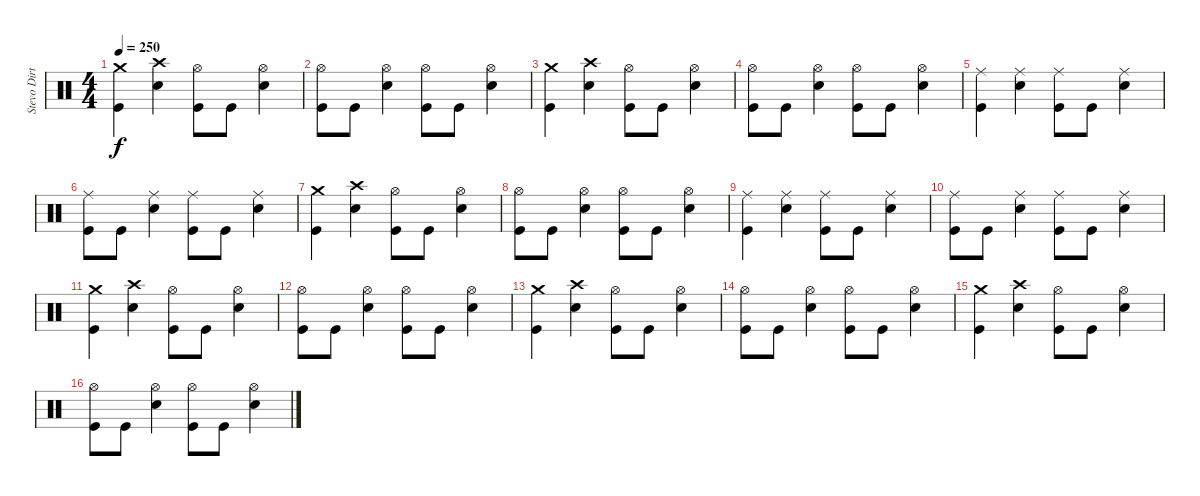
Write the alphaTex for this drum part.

\track ("Stevo Dirty Poo" "Stevo Dirt") {instrument percussion}
\staff {score}
\articulation defaults
\ts (4 4)
\tempo 250
\clef neutral
\ks c
("Crash medium (hit)" "Kick (hit)").4{dy f} ("Crash high (hit)" "Snare (hit) 2").4 ("Hi-Hat (open)" "Kick (hit)").8 "Kick (hit)".8 ("Hi-Hat (open)" "Snare (hit) 2").4 |
("Hi-Hat (open)" "Kick (hit)").8 "Kick (hit)".8 ("Hi-Hat (open)" "Snare (hit) 2").4 ("Hi-Hat (open)" "Kick (hit)").8 "Kick (hit)".8 ("Hi-Hat (open)" "Snare (hit) 2").4 |
("Crash medium (hit)" "Kick (hit)").4 ("Crash high (hit)" "Snare (hit) 2").4 ("Hi-Hat (open)" "Kick (hit)").8 "Kick (hit)".8 ("Hi-Hat (open)" "Snare (hit) 2").4 |
("Hi-Hat (open)" "Kick (hit)").8 "Kick (hit)".8 ("Hi-Hat (open)" "Snare (hit) 2").4 ("Hi-Hat (open)" "Kick (hit)").8 "Kick (hit)".8 ("Hi-Hat (open)" "Snare (hit) 2").4 |
("Ride (middle)" "Kick (hit)").4 ("Ride (middle)" "Snare (hit) 2").4 ("Ride (middle)" "Kick (hit)").8 "Kick (hit)".8 ("Ride (middle)" "Snare (hit) 2").4 |
("Ride (middle)" "Kick (hit)").8 "Kick (hit)".8 ("Ride (middle)" "Snare (hit) 2").4 ("Ride (middle)" "Kick (hit)").8 "Kick (hit)".8 ("Ride (middle)" "Snare (hit) 2").4 |
("Crash medium (hit)" "Kick (hit)").4 ("Crash high (hit)" "Snare (hit) 2").4 ("Hi-Hat (open)" "Kick (hit)").8 "Kick (hit)".8 ("Hi-Hat (open)" "Snare (hit) 2").4 |
("Hi-Hat (open)" "Kick (hit)").8 "Kick (hit)".8 ("Hi-Hat (open)" "Snare (hit) 2").4 ("Hi-Hat (open)" "Kick (hit)").8 "Kick (hit)".8 ("Hi-Hat (open)" "Snare (hit) 2").4 |
("Ride (middle)" "Kick (hit)").4 ("Ride (middle)" "Snare (hit) 2").4 ("Ride (middle)" "Kick (hit)").8 "Kick (hit)".8 ("Ride (middle)" "Snare (hit) 2").4 |
("Ride (middle)" "Kick (hit)").8 "Kick (hit)".8 ("Ride (middle)" "Snare (hit) 2").4 ("Ride (middle)" "Kick (hit)").8 "Kick (hit)".8 ("Ride (middle)" "Snare (hit) 2").4 |
("Crash medium (hit)" "Kick (hit)").4 ("Crash high (hit)" "Snare (hit) 2").4 ("Hi-Hat (open)" "Kick (hit)").8 "Kick (hit)".8 ("Hi-Hat (open)" "Snare (hit) 2").4 |
("Hi-Hat (open)" "Kick (hit)").8 "Kick (hit)".8 ("Hi-Hat (open)" "Snare (hit) 2").4 ("Hi-Hat (open)" "Kick (hit)").8 "Kick (hit)".8 ("Hi-Hat (open)" "Snare (hit) 2").4 |
("Crash medium (hit)" "Kick (hit)").4 ("Crash high (hit)" "Snare (hit) 2").4 ("Hi-Hat (open)" "Kick (hit)").8 "Kick (hit)".8 ("Hi-Hat (open)" "Snare (hit) 2").4 |
("Hi-Hat (open)" "Kick (hit)").8 "Kick (hit)".8 ("Hi-Hat (open)" "Snare (hit) 2").4 ("Hi-Hat (open)" "Kick (hit)").8 "Kick (hit)".8 ("Hi-Hat (open)" "Snare (hit) 2").4 |
("Crash medium (hit)" "Kick (hit)").4 ("Crash high (hit)" "Snare (hit) 2").4 ("Hi-Hat (open)" "Kick (hit)").8 "Kick (hit)".8 ("Hi-Hat (open)" "Snare (hit) 2").4 |
("Hi-Hat (open)" "Kick (hit)").8 "Kick (hit)".8 ("Hi-Hat (open)" "Snare (hit) 2").4 ("Hi-Hat (open)" "Kick (hit)").8 "Kick (hit)".8 ("Hi-Hat (open)" "Snare (hit) 2").4
